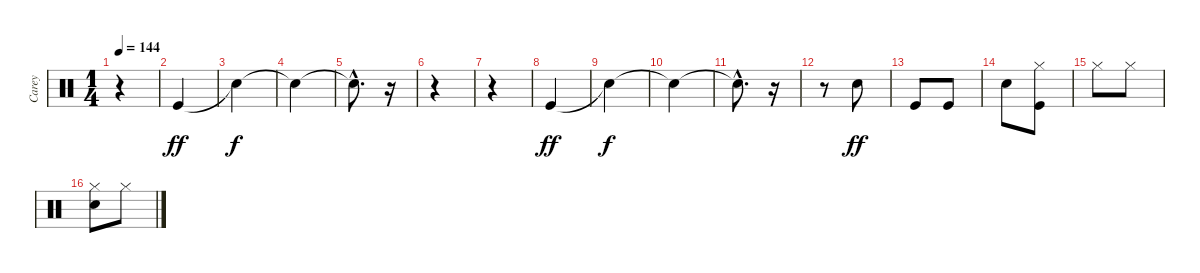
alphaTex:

\track ("Carey" "Carey") {instrument percussion}
\staff {score}
\articulation defaults
\ts (1 4)
\tempo 144
\clef neutral
\ks c
r.4{dy f} |
"Kick (hit)".4{dy ff} |
"Snare (hit)"{t}.4{dy f} |
"Snare (hit)"{t}.4 |
"Snare (hit)"{hac t}.8{d} r.16 |
r.4 |
r.4 |
"Kick (hit)".4{dy ff} |
"Snare (hit)"{t}.4{dy f} |
"Snare (hit)"{t}.4 |
"Snare (hit)"{hac t}.8{d} r.16 |
r.8 "Snare (hit) 2".8{dy ff} |
"Kick (hit)".8 "Kick (hit)".8 |
"Snare (hit) 2".8 ("Kick (hit)" "Hi-Hat (closed)").8 |
"Hi-Hat (closed)".8 "Hi-Hat (closed)".8 |
("Snare (hit) 2" "Hi-Hat (closed)").8 "Hi-Hat (closed)".8
